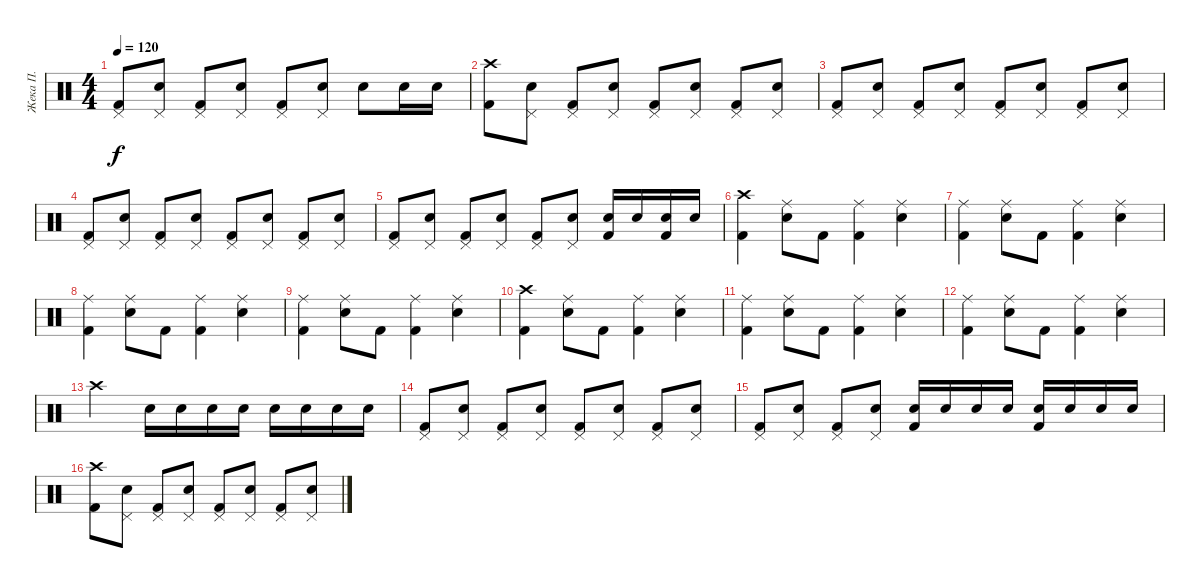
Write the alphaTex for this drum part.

\track ("Жека П." "Жека П.") {instrument percussion}
\staff {score}
\articulation defaults
\ts (4 4)
\tempo 120
\clef neutral
\ks c
("Pedal Hi-Hat (hit)" "Kick (hit) 2").8{dy f} ("Pedal Hi-Hat (hit)" "Snare (hit) 2").8 ("Pedal Hi-Hat (hit)" "Kick (hit) 2").8 ("Pedal Hi-Hat (hit)" "Snare (hit) 2").8 ("Pedal Hi-Hat (hit)" "Kick (hit) 2").8 ("Pedal Hi-Hat (hit)" "Snare (hit) 2").8 "Snare (hit) 2".8 "Snare (hit) 2".16 "Snare (hit) 2".16 |
("Crash high (hit)" "Kick (hit) 2").8 ("Pedal Hi-Hat (hit)" "Snare (hit) 2").8 ("Pedal Hi-Hat (hit)" "Kick (hit) 2").8 ("Pedal Hi-Hat (hit)" "Snare (hit) 2").8 ("Pedal Hi-Hat (hit)" "Kick (hit) 2").8 ("Pedal Hi-Hat (hit)" "Snare (hit) 2").8 ("Pedal Hi-Hat (hit)" "Kick (hit) 2").8 ("Pedal Hi-Hat (hit)" "Snare (hit) 2").8 |
("Pedal Hi-Hat (hit)" "Kick (hit) 2").8 ("Pedal Hi-Hat (hit)" "Snare (hit) 2").8 ("Pedal Hi-Hat (hit)" "Kick (hit) 2").8 ("Pedal Hi-Hat (hit)" "Snare (hit) 2").8 ("Pedal Hi-Hat (hit)" "Kick (hit) 2").8 ("Pedal Hi-Hat (hit)" "Snare (hit) 2").8 ("Pedal Hi-Hat (hit)" "Kick (hit) 2").8 ("Pedal Hi-Hat (hit)" "Snare (hit) 2").8 |
("Pedal Hi-Hat (hit)" "Kick (hit) 2").8 ("Pedal Hi-Hat (hit)" "Snare (hit) 2").8 ("Pedal Hi-Hat (hit)" "Kick (hit) 2").8 ("Pedal Hi-Hat (hit)" "Snare (hit) 2").8 ("Pedal Hi-Hat (hit)" "Kick (hit) 2").8 ("Pedal Hi-Hat (hit)" "Snare (hit) 2").8 ("Pedal Hi-Hat (hit)" "Kick (hit) 2").8 ("Pedal Hi-Hat (hit)" "Snare (hit) 2").8 |
("Pedal Hi-Hat (hit)" "Kick (hit) 2").8 ("Pedal Hi-Hat (hit)" "Snare (hit) 2").8 ("Pedal Hi-Hat (hit)" "Kick (hit) 2").8 ("Pedal Hi-Hat (hit)" "Snare (hit) 2").8 ("Pedal Hi-Hat (hit)" "Kick (hit) 2").8 ("Pedal Hi-Hat (hit)" "Snare (hit) 2").8 ("Snare (hit) 2" "Kick (hit) 2").16 "Snare (hit) 2".16 ("Snare (hit) 2" "Kick (hit) 2").16 "Snare (hit) 2".16 |
("Crash high (hit)" "Kick (hit) 2").4 ("Ride (middle)" "Snare (hit) 2").8 "Kick (hit) 2".8 ("Ride (middle)" "Kick (hit) 2").4 ("Ride (middle)" "Snare (hit) 2").4 |
("Ride (middle)" "Kick (hit) 2").4 ("Ride (middle)" "Snare (hit) 2").8 "Kick (hit) 2".8 ("Ride (middle)" "Kick (hit) 2").4 ("Ride (middle)" "Snare (hit) 2").4 |
("Ride (middle)" "Kick (hit) 2").4 ("Ride (middle)" "Snare (hit) 2").8 "Kick (hit) 2".8 ("Ride (middle)" "Kick (hit) 2").4 ("Ride (middle)" "Snare (hit) 2").4 |
("Ride (middle)" "Kick (hit) 2").4 ("Ride (middle)" "Snare (hit) 2").8 "Kick (hit) 2".8 ("Ride (middle)" "Kick (hit) 2").4 ("Ride (middle)" "Snare (hit) 2").4 |
("Crash high (hit)" "Kick (hit) 2").4 ("Ride (middle)" "Snare (hit) 2").8 "Kick (hit) 2".8 ("Ride (middle)" "Kick (hit) 2").4 ("Ride (middle)" "Snare (hit) 2").4 |
("Ride (middle)" "Kick (hit) 2").4 ("Ride (middle)" "Snare (hit) 2").8 "Kick (hit) 2".8 ("Ride (middle)" "Kick (hit) 2").4 ("Ride (middle)" "Snare (hit) 2").4 |
("Ride (middle)" "Kick (hit) 2").4 ("Ride (middle)" "Snare (hit) 2").8 "Kick (hit) 2".8 ("Ride (middle)" "Kick (hit) 2").4 ("Ride (middle)" "Snare (hit) 2").4 |
"Crash high (hit)".2 "Snare (hit) 2".16 "Snare (hit) 2".16 "Snare (hit) 2".16 "Snare (hit) 2".16 "Snare (hit) 2".16 "Snare (hit) 2".16 "Snare (hit) 2".16 "Snare (hit) 2".16 |
("Pedal Hi-Hat (hit)" "Kick (hit) 2").8 ("Pedal Hi-Hat (hit)" "Snare (hit) 2").8 ("Pedal Hi-Hat (hit)" "Kick (hit) 2").8 ("Pedal Hi-Hat (hit)" "Snare (hit) 2").8 ("Pedal Hi-Hat (hit)" "Kick (hit) 2").8 ("Pedal Hi-Hat (hit)" "Snare (hit) 2").8 ("Pedal Hi-Hat (hit)" "Kick (hit) 2").8 ("Pedal Hi-Hat (hit)" "Snare (hit) 2").8 |
("Pedal Hi-Hat (hit)" "Kick (hit) 2").8 ("Pedal Hi-Hat (hit)" "Snare (hit) 2").8 ("Pedal Hi-Hat (hit)" "Kick (hit) 2").8 ("Pedal Hi-Hat (hit)" "Snare (hit) 2").8 ("Snare (hit) 2" "Kick (hit) 2").16 "Snare (hit) 2".16 "Snare (hit) 2".16 "Snare (hit) 2".16 ("Snare (hit) 2" "Kick (hit) 2").16 "Snare (hit) 2".16 "Snare (hit) 2".16 "Snare (hit) 2".16 |
("Crash high (hit)" "Kick (hit) 2").8 ("Pedal Hi-Hat (hit)" "Snare (hit) 2").8 ("Pedal Hi-Hat (hit)" "Kick (hit) 2").8 ("Pedal Hi-Hat (hit)" "Snare (hit) 2").8 ("Pedal Hi-Hat (hit)" "Kick (hit) 2").8 ("Pedal Hi-Hat (hit)" "Snare (hit) 2").8 ("Pedal Hi-Hat (hit)" "Kick (hit) 2").8 ("Pedal Hi-Hat (hit)" "Snare (hit) 2").8
